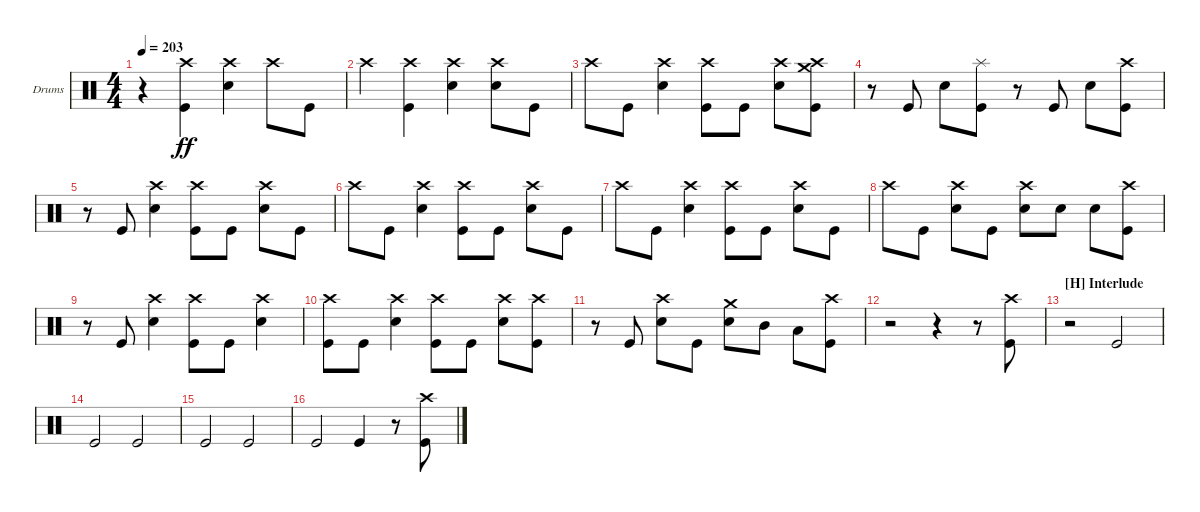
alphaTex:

\defaultSystemsLayout 4
\bracketExtendMode groupsimilarinstruments
\firstSystemTrackNameOrientation horizontal
\otherSystemsTrackNameOrientation horizontal
\track ("Brandon Barnes - Drums" "Drums") {instrument percussion}
\staff {score}
\articulation defaults
\ts (4 4)
\tempo 203
\clef neutral
\ks c
r.4{dy ff} ("Crash high (hit)" "Kick (hit)").4 ("Snare (hit) 2" "Crash high (hit)").4 "Crash high (hit)".8 "Kick (hit)".8 |
"Crash high (hit)".4 ("Crash high (hit)" "Kick (hit)").4 ("Snare (hit) 2" "Crash high (hit)").4 ("Crash high (hit)" "Snare (hit) 2").8 "Kick (hit)".8 |
"Crash high (hit)".8 "Kick (hit)".8 ("Snare (hit) 2" "Crash high (hit)").4 ("Kick (hit)" "Crash high (hit)").8 "Kick (hit)".8 ("Snare (hit) 2" "Crash high (hit)").8 ("Kick (hit)" "Crash high (hit)" "Crash medium (hit)").8 |
r.8 "Kick (hit)".8 "Snare (hit) 2".8 ("Kick (hit)" "Splash (hit)").8 r.8 "Kick (hit)".8 "Snare (hit) 2".8 ("Kick (hit)" "Crash high (hit)").8 |
r.8 "Kick (hit)".8 ("Snare (hit) 2" "Crash high (hit)").4 ("Kick (hit)" "Crash high (hit)").8 "Kick (hit)".8 ("Snare (hit) 2" "Crash high (hit)").8 "Kick (hit)".8 |
"Crash high (hit)".8 "Kick (hit)".8 ("Snare (hit) 2" "Crash high (hit)").4 ("Kick (hit)" "Crash high (hit)").8 "Kick (hit)".8 ("Snare (hit) 2" "Crash high (hit)").8 "Kick (hit)".8 |
"Crash high (hit)".8 "Kick (hit)".8 ("Snare (hit) 2" "Crash high (hit)").4 ("Kick (hit)" "Crash high (hit)").8 "Kick (hit)".8 ("Snare (hit) 2" "Crash high (hit)").8 "Kick (hit)".8 |
"Crash high (hit)".8 "Kick (hit)".8 ("Snare (hit) 2" "Crash high (hit)").8 "Kick (hit)".8 ("Snare (hit) 2" "Crash high (hit)").8 "Snare (hit) 2".8 "Snare (hit) 2".8 ("Kick (hit)" "Crash high (hit)").8 |
r.8 "Kick (hit)".8 ("Snare (hit) 2" "Crash high (hit)").4 ("Kick (hit)" "Crash high (hit)").8 "Kick (hit)".8 ("Snare (hit) 2" "Crash high (hit)").4 |
("Kick (hit)" "Crash high (hit)").8 "Kick (hit)".8 ("Snare (hit) 2" "Crash high (hit)").4 ("Kick (hit)" "Crash high (hit)").8 "Kick (hit)".8 ("Snare (hit) 2" "Crash high (hit)").8 ("Kick (hit)" "Crash high (hit)").8 |
r.8 "Kick (hit)".8 ("Snare (hit) 2" "Crash high (hit)").8 "Kick (hit)".8 ("Snare (hit) 2" "Crash medium (hit)").8 "Mid Tom (hit)".8 "Low Tom (hit)".8 ("Kick (hit)" "Crash high (hit)").8 |
r.2 r.4 r.8 ("Kick (hit)" "Crash high (hit)").8 |
\section ("H" "Interlude")
r.2 "Kick (hit)".2 |
"Kick (hit)".2 "Kick (hit)".2 |
"Kick (hit)".2 "Kick (hit)".2 |
"Kick (hit)".2 "Kick (hit)".4 r.8 ("Kick (hit)" "Crash high (hit)").8
